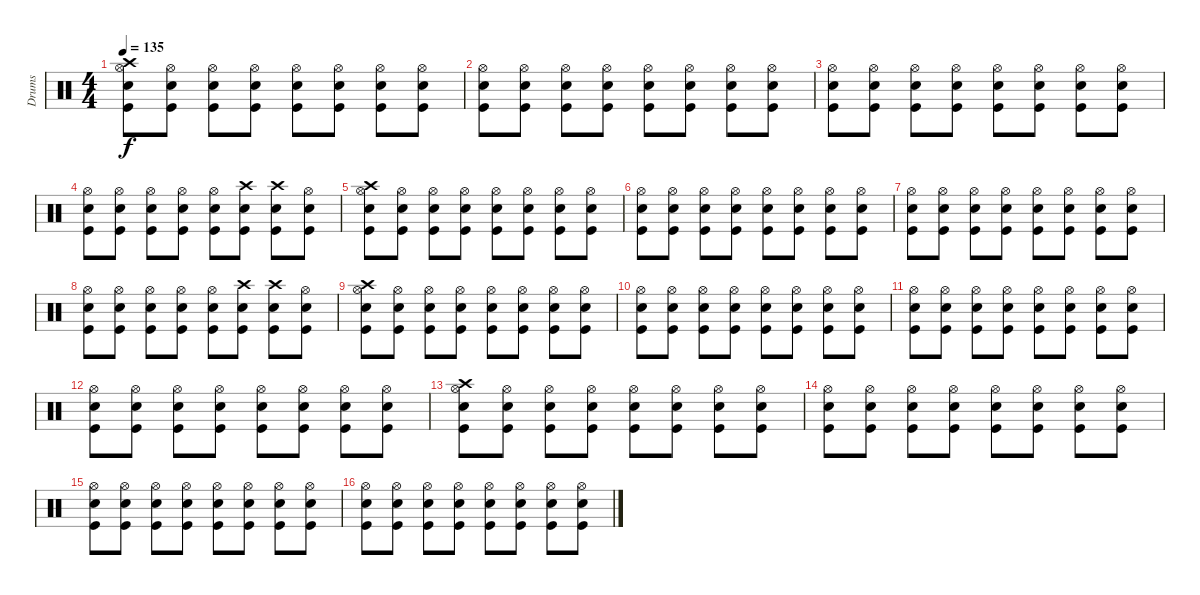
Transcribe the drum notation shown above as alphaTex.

\track ("Drums" "Drums") {instrument percussion}
\staff {score}
\articulation defaults
\ts (4 4)
\tempo 135
\clef neutral
\ks c
("Crash high (hit)" "Hi-Hat (open)" "Electric Snare (hit)" "Kick (hit)").8{dy f} ("Hi-Hat (open)" "Electric Snare (hit)" "Kick (hit)").8 ("Hi-Hat (open)" "Electric Snare (hit)" "Kick (hit)").8 ("Hi-Hat (open)" "Electric Snare (hit)" "Kick (hit)").8 ("Hi-Hat (open)" "Electric Snare (hit)" "Kick (hit)").8 ("Hi-Hat (open)" "Electric Snare (hit)" "Kick (hit)").8 ("Hi-Hat (open)" "Electric Snare (hit)" "Kick (hit)").8 ("Hi-Hat (open)" "Electric Snare (hit)" "Kick (hit)").8 |
("Hi-Hat (open)" "Electric Snare (hit)" "Kick (hit)").8 ("Hi-Hat (open)" "Electric Snare (hit)" "Kick (hit)").8 ("Hi-Hat (open)" "Electric Snare (hit)" "Kick (hit)").8 ("Hi-Hat (open)" "Electric Snare (hit)" "Kick (hit)").8 ("Hi-Hat (open)" "Electric Snare (hit)" "Kick (hit)").8 ("Hi-Hat (open)" "Electric Snare (hit)" "Kick (hit)").8 ("Hi-Hat (open)" "Electric Snare (hit)" "Kick (hit)").8 ("Hi-Hat (open)" "Electric Snare (hit)" "Kick (hit)").8 |
("Hi-Hat (open)" "Electric Snare (hit)" "Kick (hit)").8 ("Hi-Hat (open)" "Electric Snare (hit)" "Kick (hit)").8 ("Hi-Hat (open)" "Electric Snare (hit)" "Kick (hit)").8 ("Hi-Hat (open)" "Electric Snare (hit)" "Kick (hit)").8 ("Hi-Hat (open)" "Electric Snare (hit)" "Kick (hit)").8 ("Hi-Hat (open)" "Electric Snare (hit)" "Kick (hit)").8 ("Hi-Hat (open)" "Electric Snare (hit)" "Kick (hit)").8 ("Hi-Hat (open)" "Electric Snare (hit)" "Kick (hit)").8 |
("Hi-Hat (open)" "Electric Snare (hit)" "Kick (hit)").8 ("Hi-Hat (open)" "Electric Snare (hit)" "Kick (hit)").8 ("Hi-Hat (open)" "Electric Snare (hit)" "Kick (hit)").8 ("Hi-Hat (open)" "Electric Snare (hit)" "Kick (hit)").8 ("Hi-Hat (open)" "Electric Snare (hit)" "Kick (hit)").8 ("Crash high (hit)" "Electric Snare (hit)" "Kick (hit)").8 ("Crash high (hit)" "Electric Snare (hit)" "Kick (hit)").8 ("Hi-Hat (open)" "Electric Snare (hit)" "Kick (hit)").8 |
("Crash high (hit)" "Hi-Hat (open)" "Electric Snare (hit)" "Kick (hit)").8 ("Hi-Hat (open)" "Electric Snare (hit)" "Kick (hit)").8 ("Hi-Hat (open)" "Electric Snare (hit)" "Kick (hit)").8 ("Hi-Hat (open)" "Electric Snare (hit)" "Kick (hit)").8 ("Hi-Hat (open)" "Electric Snare (hit)" "Kick (hit)").8 ("Hi-Hat (open)" "Electric Snare (hit)" "Kick (hit)").8 ("Hi-Hat (open)" "Electric Snare (hit)" "Kick (hit)").8 ("Hi-Hat (open)" "Electric Snare (hit)" "Kick (hit)").8 |
("Hi-Hat (open)" "Electric Snare (hit)" "Kick (hit)").8 ("Hi-Hat (open)" "Electric Snare (hit)" "Kick (hit)").8 ("Hi-Hat (open)" "Electric Snare (hit)" "Kick (hit)").8 ("Hi-Hat (open)" "Electric Snare (hit)" "Kick (hit)").8 ("Hi-Hat (open)" "Electric Snare (hit)" "Kick (hit)").8 ("Hi-Hat (open)" "Electric Snare (hit)" "Kick (hit)").8 ("Hi-Hat (open)" "Electric Snare (hit)" "Kick (hit)").8 ("Hi-Hat (open)" "Electric Snare (hit)" "Kick (hit)").8 |
("Hi-Hat (open)" "Electric Snare (hit)" "Kick (hit)").8 ("Hi-Hat (open)" "Electric Snare (hit)" "Kick (hit)").8 ("Hi-Hat (open)" "Electric Snare (hit)" "Kick (hit)").8 ("Hi-Hat (open)" "Electric Snare (hit)" "Kick (hit)").8 ("Hi-Hat (open)" "Electric Snare (hit)" "Kick (hit)").8 ("Hi-Hat (open)" "Electric Snare (hit)" "Kick (hit)").8 ("Hi-Hat (open)" "Electric Snare (hit)" "Kick (hit)").8 ("Hi-Hat (open)" "Electric Snare (hit)" "Kick (hit)").8 |
("Hi-Hat (open)" "Electric Snare (hit)" "Kick (hit)").8 ("Hi-Hat (open)" "Electric Snare (hit)" "Kick (hit)").8 ("Hi-Hat (open)" "Electric Snare (hit)" "Kick (hit)").8 ("Hi-Hat (open)" "Electric Snare (hit)" "Kick (hit)").8 ("Hi-Hat (open)" "Electric Snare (hit)" "Kick (hit)").8 ("Crash high (hit)" "Electric Snare (hit)" "Kick (hit)").8 ("Crash high (hit)" "Electric Snare (hit)" "Kick (hit)").8 ("Hi-Hat (open)" "Electric Snare (hit)" "Kick (hit)").8 |
("Crash high (hit)" "Hi-Hat (open)" "Electric Snare (hit)" "Kick (hit)").8 ("Hi-Hat (open)" "Electric Snare (hit)" "Kick (hit)").8 ("Hi-Hat (open)" "Electric Snare (hit)" "Kick (hit)").8 ("Hi-Hat (open)" "Electric Snare (hit)" "Kick (hit)").8 ("Hi-Hat (open)" "Electric Snare (hit)" "Kick (hit)").8 ("Hi-Hat (open)" "Electric Snare (hit)" "Kick (hit)").8 ("Hi-Hat (open)" "Electric Snare (hit)" "Kick (hit)").8 ("Hi-Hat (open)" "Electric Snare (hit)" "Kick (hit)").8 |
("Hi-Hat (open)" "Electric Snare (hit)" "Kick (hit)").8 ("Hi-Hat (open)" "Electric Snare (hit)" "Kick (hit)").8 ("Hi-Hat (open)" "Electric Snare (hit)" "Kick (hit)").8 ("Hi-Hat (open)" "Electric Snare (hit)" "Kick (hit)").8 ("Hi-Hat (open)" "Electric Snare (hit)" "Kick (hit)").8 ("Hi-Hat (open)" "Electric Snare (hit)" "Kick (hit)").8 ("Hi-Hat (open)" "Electric Snare (hit)" "Kick (hit)").8 ("Hi-Hat (open)" "Electric Snare (hit)" "Kick (hit)").8 |
("Hi-Hat (open)" "Electric Snare (hit)" "Kick (hit)").8 ("Hi-Hat (open)" "Electric Snare (hit)" "Kick (hit)").8 ("Hi-Hat (open)" "Electric Snare (hit)" "Kick (hit)").8 ("Hi-Hat (open)" "Electric Snare (hit)" "Kick (hit)").8 ("Hi-Hat (open)" "Electric Snare (hit)" "Kick (hit)").8 ("Hi-Hat (open)" "Electric Snare (hit)" "Kick (hit)").8 ("Hi-Hat (open)" "Electric Snare (hit)" "Kick (hit)").8 ("Hi-Hat (open)" "Electric Snare (hit)" "Kick (hit)").8 |
("Hi-Hat (open)" "Electric Snare (hit)" "Kick (hit)").8 ("Hi-Hat (open)" "Electric Snare (hit)" "Kick (hit)").8 ("Hi-Hat (open)" "Electric Snare (hit)" "Kick (hit)").8 ("Hi-Hat (open)" "Electric Snare (hit)" "Kick (hit)").8 ("Hi-Hat (open)" "Electric Snare (hit)" "Kick (hit)").8 ("Hi-Hat (open)" "Electric Snare (hit)" "Kick (hit)").8 ("Hi-Hat (open)" "Electric Snare (hit)" "Kick (hit)").8 ("Hi-Hat (open)" "Electric Snare (hit)" "Kick (hit)").8 |
("Crash high (hit)" "Hi-Hat (open)" "Electric Snare (hit)" "Kick (hit)").8 ("Hi-Hat (open)" "Electric Snare (hit)" "Kick (hit)").8 ("Hi-Hat (open)" "Electric Snare (hit)" "Kick (hit)").8 ("Hi-Hat (open)" "Electric Snare (hit)" "Kick (hit)").8 ("Hi-Hat (open)" "Electric Snare (hit)" "Kick (hit)").8 ("Hi-Hat (open)" "Electric Snare (hit)" "Kick (hit)").8 ("Hi-Hat (open)" "Electric Snare (hit)" "Kick (hit)").8 ("Hi-Hat (open)" "Electric Snare (hit)" "Kick (hit)").8 |
("Hi-Hat (open)" "Electric Snare (hit)" "Kick (hit)").8 ("Hi-Hat (open)" "Electric Snare (hit)" "Kick (hit)").8 ("Hi-Hat (open)" "Electric Snare (hit)" "Kick (hit)").8 ("Hi-Hat (open)" "Electric Snare (hit)" "Kick (hit)").8 ("Hi-Hat (open)" "Electric Snare (hit)" "Kick (hit)").8 ("Hi-Hat (open)" "Electric Snare (hit)" "Kick (hit)").8 ("Hi-Hat (open)" "Electric Snare (hit)" "Kick (hit)").8 ("Hi-Hat (open)" "Electric Snare (hit)" "Kick (hit)").8 |
("Hi-Hat (open)" "Electric Snare (hit)" "Kick (hit)").8 ("Hi-Hat (open)" "Electric Snare (hit)" "Kick (hit)").8 ("Hi-Hat (open)" "Electric Snare (hit)" "Kick (hit)").8 ("Hi-Hat (open)" "Electric Snare (hit)" "Kick (hit)").8 ("Hi-Hat (open)" "Electric Snare (hit)" "Kick (hit)").8 ("Hi-Hat (open)" "Electric Snare (hit)" "Kick (hit)").8 ("Hi-Hat (open)" "Electric Snare (hit)" "Kick (hit)").8 ("Hi-Hat (open)" "Electric Snare (hit)" "Kick (hit)").8 |
("Hi-Hat (open)" "Electric Snare (hit)" "Kick (hit)").8 ("Hi-Hat (open)" "Electric Snare (hit)" "Kick (hit)").8 ("Hi-Hat (open)" "Electric Snare (hit)" "Kick (hit)").8 ("Hi-Hat (open)" "Electric Snare (hit)" "Kick (hit)").8 ("Hi-Hat (open)" "Electric Snare (hit)" "Kick (hit)").8 ("Hi-Hat (open)" "Electric Snare (hit)" "Kick (hit)").8 ("Hi-Hat (open)" "Electric Snare (hit)" "Kick (hit)").8 ("Hi-Hat (open)" "Electric Snare (hit)" "Kick (hit)").8
